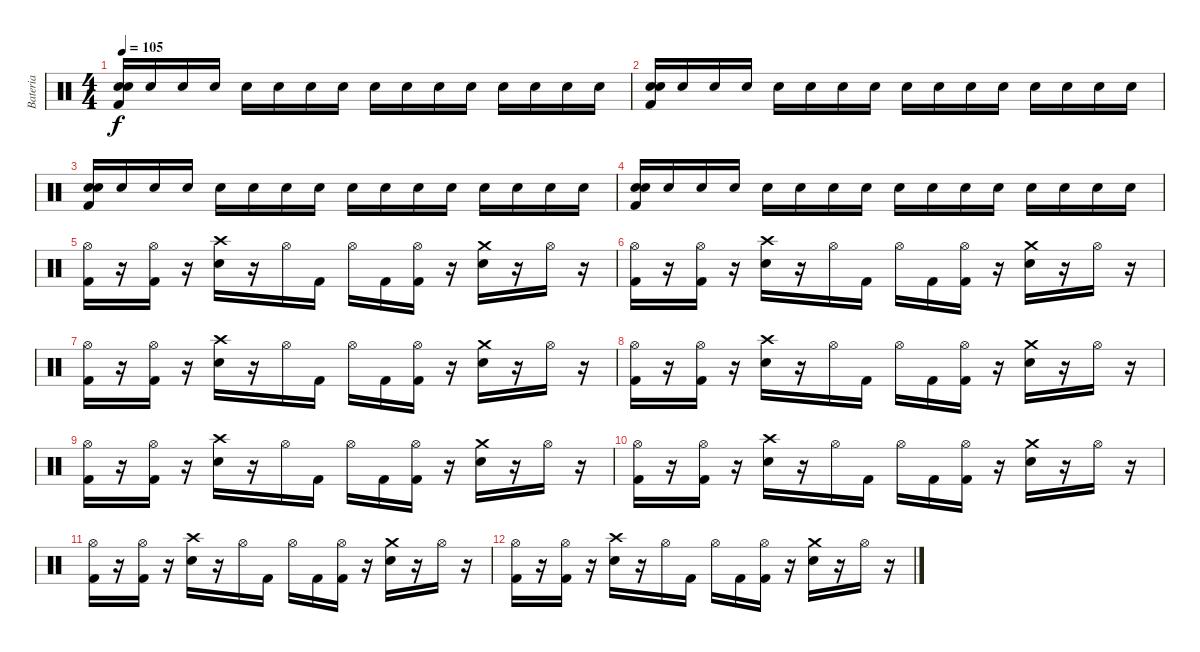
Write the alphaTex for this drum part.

\track ("Bateria" "Bateria") {instrument percussion}
\staff {score}
\articulation defaults
\ts (4 4)
\tempo 105
\clef neutral
\ks c
("Snare (hit) 2" "Kick (hit) 2" "Snare (hit) 2").16{dy f} "Snare (hit) 2".16 "Snare (hit) 2".16 "Snare (hit) 2".16 "Snare (hit) 2".16 "Snare (hit) 2".16 "Snare (hit) 2".16 "Snare (hit) 2".16 "Snare (hit) 2".16 "Snare (hit) 2".16 "Snare (hit) 2".16 "Snare (hit) 2".16 "Snare (hit) 2".16 "Snare (hit) 2".16 "Snare (hit) 2".16 "Snare (hit) 2".16 |
("Snare (hit) 2" "Kick (hit) 2" "Snare (hit) 2").16 "Snare (hit) 2".16 "Snare (hit) 2".16 "Snare (hit) 2".16 "Snare (hit) 2".16 "Snare (hit) 2".16 "Snare (hit) 2".16 "Snare (hit) 2".16 "Snare (hit) 2".16 "Snare (hit) 2".16 "Snare (hit) 2".16 "Snare (hit) 2".16 "Snare (hit) 2".16 "Snare (hit) 2".16 "Snare (hit) 2".16 "Snare (hit) 2".16 |
("Snare (hit) 2" "Kick (hit) 2" "Snare (hit) 2").16 "Snare (hit) 2".16 "Snare (hit) 2".16 "Snare (hit) 2".16 "Snare (hit) 2".16 "Snare (hit) 2".16 "Snare (hit) 2".16 "Snare (hit) 2".16 "Snare (hit) 2".16 "Snare (hit) 2".16 "Snare (hit) 2".16 "Snare (hit) 2".16 "Snare (hit) 2".16 "Snare (hit) 2".16 "Snare (hit) 2".16 "Snare (hit) 2".16 |
("Snare (hit) 2" "Kick (hit) 2" "Snare (hit) 2").16{volume 14} "Snare (hit) 2".16 "Snare (hit) 2".16 "Snare (hit) 2".16 "Snare (hit) 2".16 "Snare (hit) 2".16 "Snare (hit) 2".16 "Snare (hit) 2".16 "Snare (hit) 2".16 "Snare (hit) 2".16 "Snare (hit) 2".16 "Snare (hit) 2".16 "Snare (hit) 2".16 "Snare (hit) 2".16 "Snare (hit) 2".16 "Snare (hit) 2".16 |
("Kick (hit) 2" "Hi-Hat (open)").16 r.16 ("Kick (hit) 2" "Hi-Hat (open)").16 r.16 ("Snare (hit) 2" "Crash high (hit)").16 r.16 "Hi-Hat (open)".16 "Kick (hit) 2".16 "Hi-Hat (open)".16 "Kick (hit) 2".16 ("Kick (hit) 2" "Hi-Hat (open)").16 r.16 ("Snare (hit) 2" "Crash medium (hit)").16 r.16 "Hi-Hat (open)".16 r.16 |
("Kick (hit) 2" "Hi-Hat (open)").16 r.16 ("Kick (hit) 2" "Hi-Hat (open)").16 r.16 ("Snare (hit) 2" "Crash high (hit)").16 r.16 "Hi-Hat (open)".16 "Kick (hit) 2".16 "Hi-Hat (open)".16 "Kick (hit) 2".16 ("Kick (hit) 2" "Hi-Hat (open)").16 r.16 ("Snare (hit) 2" "Crash medium (hit)").16 r.16 "Hi-Hat (open)".16 r.16 |
("Kick (hit) 2" "Hi-Hat (open)").16 r.16 ("Kick (hit) 2" "Hi-Hat (open)").16 r.16 ("Snare (hit) 2" "Crash high (hit)").16 r.16 "Hi-Hat (open)".16 "Kick (hit) 2".16 "Hi-Hat (open)".16 "Kick (hit) 2".16 ("Kick (hit) 2" "Hi-Hat (open)").16 r.16 ("Snare (hit) 2" "Crash medium (hit)").16 r.16 "Hi-Hat (open)".16 r.16 |
("Kick (hit) 2" "Hi-Hat (open)").16 r.16 ("Kick (hit) 2" "Hi-Hat (open)").16 r.16 ("Snare (hit) 2" "Crash high (hit)").16 r.16 "Hi-Hat (open)".16 "Kick (hit) 2".16 "Hi-Hat (open)".16 "Kick (hit) 2".16 ("Kick (hit) 2" "Hi-Hat (open)").16 r.16 ("Snare (hit) 2" "Crash medium (hit)").16 r.16 "Hi-Hat (open)".16 r.16 |
("Kick (hit) 2" "Hi-Hat (open)").16 r.16 ("Kick (hit) 2" "Hi-Hat (open)").16 r.16 ("Snare (hit) 2" "Crash high (hit)").16 r.16 "Hi-Hat (open)".16 "Kick (hit) 2".16 "Hi-Hat (open)".16 "Kick (hit) 2".16 ("Kick (hit) 2" "Hi-Hat (open)").16 r.16 ("Snare (hit) 2" "Crash medium (hit)").16 r.16 "Hi-Hat (open)".16 r.16 |
("Kick (hit) 2" "Hi-Hat (open)").16 r.16 ("Kick (hit) 2" "Hi-Hat (open)").16 r.16 ("Snare (hit) 2" "Crash high (hit)").16 r.16 "Hi-Hat (open)".16 "Kick (hit) 2".16 "Hi-Hat (open)".16 "Kick (hit) 2".16 ("Kick (hit) 2" "Hi-Hat (open)").16 r.16 ("Snare (hit) 2" "Crash medium (hit)").16 r.16 "Hi-Hat (open)".16 r.16 |
("Kick (hit) 2" "Hi-Hat (open)").16 r.16 ("Kick (hit) 2" "Hi-Hat (open)").16 r.16 ("Snare (hit) 2" "Crash high (hit)").16 r.16 "Hi-Hat (open)".16 "Kick (hit) 2".16 "Hi-Hat (open)".16 "Kick (hit) 2".16 ("Kick (hit) 2" "Hi-Hat (open)").16 r.16 ("Snare (hit) 2" "Crash medium (hit)").16 r.16 "Hi-Hat (open)".16 r.16 |
("Kick (hit) 2" "Hi-Hat (open)").16 r.16 ("Kick (hit) 2" "Hi-Hat (open)").16 r.16 ("Snare (hit) 2" "Crash high (hit)").16 r.16 "Hi-Hat (open)".16 "Kick (hit) 2".16 "Hi-Hat (open)".16 "Kick (hit) 2".16 ("Kick (hit) 2" "Hi-Hat (open)").16 r.16 ("Snare (hit) 2" "Crash medium (hit)").16 r.16 "Hi-Hat (open)".16 r.16
